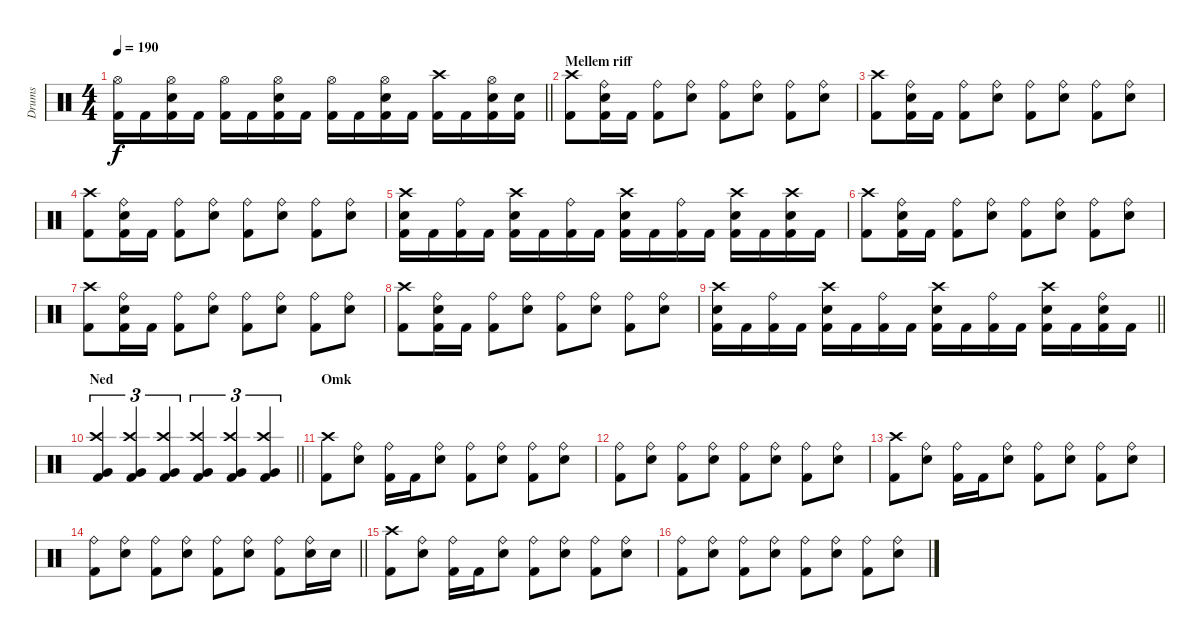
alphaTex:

\track ("Drums" "Drums") {instrument percussion}
\staff {score}
\articulation defaults
\ts (4 4)
\tempo 190
\clef neutral
\barLineRight lightlight
\ks c
("Hi-Hat (open)" "Kick (hit) 2").16{dy f} "Kick (hit) 2".16 ("Hi-Hat (open)" "Snare (hit) 2" "Kick (hit) 2").16 "Kick (hit) 2".16 ("Hi-Hat (open)" "Kick (hit) 2").16 "Kick (hit) 2".16 ("Hi-Hat (open)" "Snare (hit) 2" "Kick (hit) 2").16 "Kick (hit) 2".16 ("Hi-Hat (open)" "Kick (hit) 2").16 "Kick (hit) 2".16 ("Hi-Hat (open)" "Snare (hit) 2" "Kick (hit) 2").16 "Kick (hit) 2".16 ("Crash high (hit)" "Kick (hit) 2").16 "Kick (hit) 2".16 ("Hi-Hat (open)" "Snare (hit) 2" "Kick (hit) 2").16 ("Snare (hit) 2" "Kick (hit) 2").16 |
\section ("" "Mellem riff")
("Crash high (hit)" "Kick (hit) 2").8 ("Ride (bell)" "Snare (hit) 2" "Kick (hit) 2").16 "Kick (hit) 2".16 ("Ride (bell)" "Kick (hit) 2").8 ("Ride (bell)" "Snare (hit) 2").8 ("Ride (bell)" "Kick (hit) 2").8 ("Ride (bell)" "Snare (hit) 2").8 ("Ride (bell)" "Kick (hit) 2").8 ("Ride (bell)" "Snare (hit) 2").8 |
("Crash high (hit)" "Kick (hit) 2").8 ("Ride (bell)" "Snare (hit) 2" "Kick (hit) 2").16 "Kick (hit) 2".16 ("Ride (bell)" "Kick (hit) 2").8 ("Ride (bell)" "Snare (hit) 2").8 ("Ride (bell)" "Kick (hit) 2").8 ("Ride (bell)" "Snare (hit) 2").8 ("Ride (bell)" "Kick (hit) 2").8 ("Ride (bell)" "Snare (hit) 2").8 |
("Crash high (hit)" "Kick (hit) 2").8 ("Ride (bell)" "Snare (hit) 2" "Kick (hit) 2").16 "Kick (hit) 2".16 ("Ride (bell)" "Kick (hit) 2").8 ("Ride (bell)" "Snare (hit) 2").8 ("Ride (bell)" "Kick (hit) 2").8 ("Ride (bell)" "Snare (hit) 2").8 ("Ride (bell)" "Kick (hit) 2").8 ("Ride (bell)" "Snare (hit) 2").8 |
("Crash high (hit)" "Snare (hit) 2" "Kick (hit) 2").16 "Kick (hit) 2".16 ("Ride (bell)" "Kick (hit) 2").16 "Kick (hit) 2".16 ("Crash high (hit)" "Snare (hit) 2" "Kick (hit) 2").16 "Kick (hit) 2".16 ("Ride (bell)" "Kick (hit) 2").16 "Kick (hit) 2".16 ("Crash high (hit)" "Snare (hit) 2" "Kick (hit) 2").16 "Kick (hit) 2".16 ("Ride (bell)" "Kick (hit) 2").16 "Kick (hit) 2".16 ("Crash high (hit)" "Snare (hit) 2" "Kick (hit) 2").16 "Kick (hit) 2".16 ("Crash high (hit)" "Snare (hit) 2" "Kick (hit) 2").16 "Kick (hit) 2".16 |
("Crash high (hit)" "Kick (hit) 2").8 ("Ride (bell)" "Snare (hit) 2" "Kick (hit) 2").16 "Kick (hit) 2".16 ("Ride (bell)" "Kick (hit) 2").8 ("Ride (bell)" "Snare (hit) 2").8 ("Ride (bell)" "Kick (hit) 2").8 ("Ride (bell)" "Snare (hit) 2").8 ("Ride (bell)" "Kick (hit) 2").8 ("Ride (bell)" "Snare (hit) 2").8 |
("Crash high (hit)" "Kick (hit) 2").8 ("Ride (bell)" "Snare (hit) 2" "Kick (hit) 2").16 "Kick (hit) 2".16 ("Ride (bell)" "Kick (hit) 2").8 ("Ride (bell)" "Snare (hit) 2").8 ("Ride (bell)" "Kick (hit) 2").8 ("Ride (bell)" "Snare (hit) 2").8 ("Ride (bell)" "Kick (hit) 2").8 ("Ride (bell)" "Snare (hit) 2").8 |
("Crash high (hit)" "Kick (hit) 2").8 ("Ride (bell)" "Snare (hit) 2" "Kick (hit) 2").16 "Kick (hit) 2".16 ("Ride (bell)" "Kick (hit) 2").8 ("Ride (bell)" "Snare (hit) 2").8 ("Ride (bell)" "Kick (hit) 2").8 ("Ride (bell)" "Snare (hit) 2").8 ("Ride (bell)" "Kick (hit) 2").8 ("Ride (bell)" "Snare (hit) 2").8 |
\barLineRight lightlight
("Crash high (hit)" "Snare (hit) 2" "Kick (hit) 2").16 "Kick (hit) 2".16 ("Ride (bell)" "Kick (hit) 2").16 "Kick (hit) 2".16 ("Crash high (hit)" "Snare (hit) 2" "Kick (hit) 2").16 "Kick (hit) 2".16 ("Ride (bell)" "Kick (hit) 2").16 "Kick (hit) 2".16 ("Crash high (hit)" "Snare (hit) 2" "Kick (hit) 2").16 "Kick (hit) 2".16 ("Ride (bell)" "Kick (hit) 2").16 "Kick (hit) 2".16 ("Crash high (hit)" "Snare (hit) 2" "Kick (hit) 2").16 "Kick (hit) 2".16 ("Ride (bell)" "Snare (hit) 2" "Kick (hit) 2").16 "Kick (hit) 2".16 |
\section ("" "Ned")
\barLineRight lightlight
("Crash high (hit)" "Very Low Tom (hit)" "Kick (hit) 2").4{tu (3 2)} ("Crash high (hit)" "Very Low Tom (hit)" "Kick (hit) 2").4{tu (3 2)} ("Crash high (hit)" "Very Low Tom (hit)" "Kick (hit) 2").4{tu (3 2)} ("Crash high (hit)" "Very Low Tom (hit)" "Kick (hit) 2").4{tu (3 2)} ("Crash high (hit)" "Very Low Tom (hit)" "Kick (hit) 2").4{tu (3 2)} ("Crash high (hit)" "Very Low Tom (hit)" "Kick (hit) 2").4{tu (3 2)} |
\section ("" "Omk")
("Crash high (hit)" "Kick (hit) 2").8 ("Ride (bell)" "Snare (hit) 2").8 ("Ride (bell)" "Kick (hit) 2").16 "Kick (hit) 2".16 ("Ride (bell)" "Snare (hit) 2").8 ("Ride (bell)" "Kick (hit) 2").8 ("Ride (bell)" "Snare (hit) 2").8 ("Ride (bell)" "Kick (hit) 2").8 ("Ride (bell)" "Snare (hit) 2").8 |
("Ride (bell)" "Kick (hit) 2").8 ("Ride (bell)" "Snare (hit) 2").8 ("Ride (bell)" "Kick (hit) 2").8 ("Ride (bell)" "Snare (hit) 2").8 ("Ride (bell)" "Kick (hit) 2").8 ("Ride (bell)" "Snare (hit) 2").8 ("Ride (bell)" "Kick (hit) 2").8 ("Ride (bell)" "Snare (hit) 2").8 |
("Crash high (hit)" "Kick (hit) 2").8 ("Ride (bell)" "Snare (hit) 2").8 ("Ride (bell)" "Kick (hit) 2").16 "Kick (hit) 2".16 ("Ride (bell)" "Snare (hit) 2").8 ("Ride (bell)" "Kick (hit) 2").8 ("Ride (bell)" "Snare (hit) 2").8 ("Ride (bell)" "Kick (hit) 2").8 ("Ride (bell)" "Snare (hit) 2").8 |
\barLineRight lightlight
("Ride (bell)" "Kick (hit) 2").8 ("Ride (bell)" "Snare (hit) 2").8 ("Ride (bell)" "Kick (hit) 2").8 ("Ride (bell)" "Snare (hit) 2").8 ("Ride (bell)" "Kick (hit) 2").8 ("Ride (bell)" "Snare (hit) 2").8 ("Ride (bell)" "Kick (hit) 2").8 ("Ride (bell)" "Snare (hit) 2").16 "Snare (hit) 2".16 |
("Crash high (hit)" "Kick (hit) 2").8 ("Ride (bell)" "Snare (hit) 2").8 ("Ride (bell)" "Kick (hit) 2").16 "Kick (hit) 2".16 ("Ride (bell)" "Snare (hit) 2").8 ("Ride (bell)" "Kick (hit) 2").8 ("Ride (bell)" "Snare (hit) 2").8 ("Ride (bell)" "Kick (hit) 2").8 ("Ride (bell)" "Snare (hit) 2").8 |
("Ride (bell)" "Kick (hit) 2").8 ("Ride (bell)" "Snare (hit) 2").8 ("Ride (bell)" "Kick (hit) 2").8 ("Ride (bell)" "Snare (hit) 2").8 ("Ride (bell)" "Kick (hit) 2").8 ("Ride (bell)" "Snare (hit) 2").8 ("Ride (bell)" "Kick (hit) 2").8 ("Ride (bell)" "Snare (hit) 2").8
